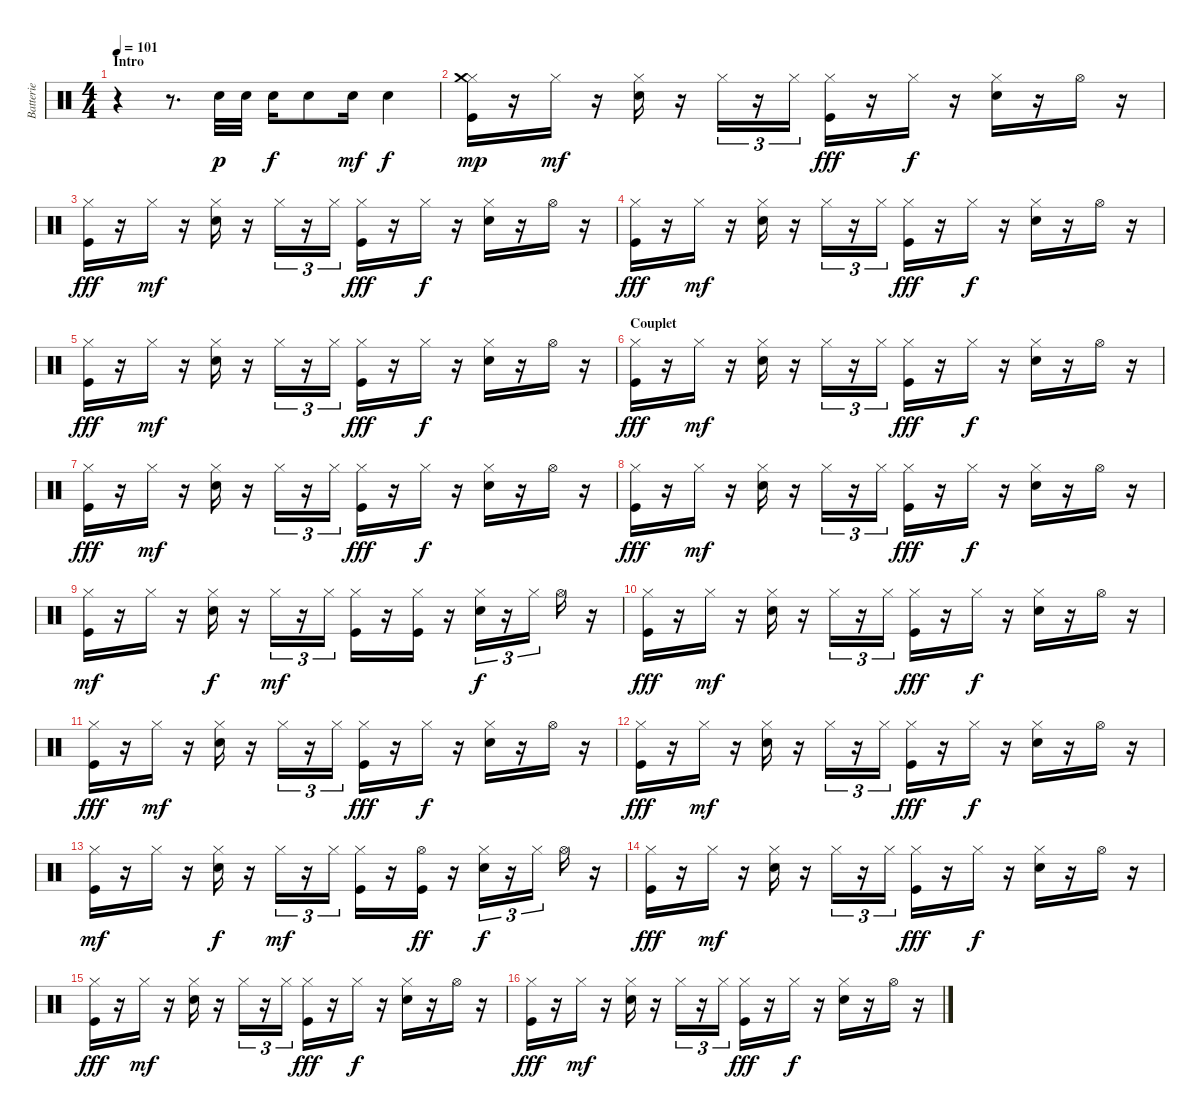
\track ("Batterie" "Batterie") {instrument percussion}
\staff {score}
\articulation defaults
\ts (4 4)
\section ("" "Intro")
\tempo 101
\clef neutral
\ks c
r.4{dy p} r.8{d} "Electric Snare (hit)".32 "Electric Snare (hit)".32 "Electric Snare (hit)".16{dy f} "Electric Snare (hit)".8 "Electric Snare (hit)".16{dy mf} "Electric Snare (hit)".4{dy f} |
("Kick (hit)" "Hi-Hat (closed)" "Crash medium (hit)").16{dy mp} r.16 "Hi-Hat (closed)".16{dy mf} r.16 ("Electric Snare (hit)" "Hi-Hat (closed)").16 r.16 "Hi-Hat (closed)".16{tu (3 2)} r.16{tu (3 2)} "Hi-Hat (closed)".16{tu (3 2)} ("Kick (hit)" "Hi-Hat (closed)").16{dy fff} r.16 "Hi-Hat (closed)".16{dy f} r.16 ("Electric Snare (hit)" "Hi-Hat (closed)").16 r.16 "Hi-Hat (open)".16 r.16 |
("Kick (hit)" "Hi-Hat (closed)").16{dy fff} r.16 "Hi-Hat (closed)".16{dy mf} r.16 ("Electric Snare (hit)" "Hi-Hat (closed)").16 r.16 "Hi-Hat (closed)".16{tu (3 2)} r.16{tu (3 2)} "Hi-Hat (closed)".16{tu (3 2)} ("Kick (hit)" "Hi-Hat (closed)").16{dy fff} r.16 "Hi-Hat (closed)".16{dy f} r.16 ("Electric Snare (hit)" "Hi-Hat (closed)").16 r.16 "Hi-Hat (open)".16 r.16 |
("Kick (hit)" "Hi-Hat (closed)").16{dy fff} r.16 "Hi-Hat (closed)".16{dy mf} r.16 ("Electric Snare (hit)" "Hi-Hat (closed)").16 r.16 "Hi-Hat (closed)".16{tu (3 2)} r.16{tu (3 2)} "Hi-Hat (closed)".16{tu (3 2)} ("Kick (hit)" "Hi-Hat (closed)").16{dy fff} r.16 "Hi-Hat (closed)".16{dy f} r.16 ("Electric Snare (hit)" "Hi-Hat (closed)").16 r.16 "Hi-Hat (open)".16 r.16 |
("Kick (hit)" "Hi-Hat (closed)").16{dy fff} r.16 "Hi-Hat (closed)".16{dy mf} r.16 ("Electric Snare (hit)" "Hi-Hat (closed)").16 r.16 "Hi-Hat (closed)".16{tu (3 2)} r.16{tu (3 2)} "Hi-Hat (closed)".16{tu (3 2)} ("Kick (hit)" "Hi-Hat (closed)").16{dy fff} r.16 "Hi-Hat (closed)".16{dy f} r.16 ("Electric Snare (hit)" "Hi-Hat (closed)").16 r.16 "Hi-Hat (open)".16 r.16 |
\section ("" "Couplet")
("Kick (hit)" "Hi-Hat (closed)").16{dy fff} r.16 "Hi-Hat (closed)".16{dy mf} r.16 ("Electric Snare (hit)" "Hi-Hat (closed)").16 r.16 "Hi-Hat (closed)".16{tu (3 2)} r.16{tu (3 2)} "Hi-Hat (closed)".16{tu (3 2)} ("Kick (hit)" "Hi-Hat (closed)").16{dy fff} r.16 "Hi-Hat (closed)".16{dy f} r.16 ("Electric Snare (hit)" "Hi-Hat (closed)").16 r.16 "Hi-Hat (open)".16 r.16 |
("Kick (hit)" "Hi-Hat (closed)").16{dy fff} r.16 "Hi-Hat (closed)".16{dy mf} r.16 ("Electric Snare (hit)" "Hi-Hat (closed)").16 r.16 "Hi-Hat (closed)".16{tu (3 2)} r.16{tu (3 2)} "Hi-Hat (closed)".16{tu (3 2)} ("Kick (hit)" "Hi-Hat (closed)").16{dy fff} r.16 "Hi-Hat (closed)".16{dy f} r.16 ("Electric Snare (hit)" "Hi-Hat (closed)").16 r.16 "Hi-Hat (open)".16 r.16 |
("Kick (hit)" "Hi-Hat (closed)").16{dy fff} r.16 "Hi-Hat (closed)".16{dy mf} r.16 ("Electric Snare (hit)" "Hi-Hat (closed)").16 r.16 "Hi-Hat (closed)".16{tu (3 2)} r.16{tu (3 2)} "Hi-Hat (closed)".16{tu (3 2)} ("Kick (hit)" "Hi-Hat (closed)").16{dy fff} r.16 "Hi-Hat (closed)".16{dy f} r.16 ("Electric Snare (hit)" "Hi-Hat (closed)").16 r.16 "Hi-Hat (open)".16 r.16 |
("Kick (hit)" "Hi-Hat (closed)").16{dy mf} r.16 "Hi-Hat (closed)".16 r.16 ("Electric Snare (hit)" "Hi-Hat (closed)").16{dy f} r.16 "Hi-Hat (closed)".16{tu (3 2) dy mf} r.16{tu (3 2)} "Hi-Hat (closed)".16{tu (3 2)} ("Kick (hit)" "Hi-Hat (closed)").16 r.16 ("Kick (hit)" "Hi-Hat (closed)").16 r.16 ("Electric Snare (hit)" "Hi-Hat (closed)").16{tu (3 2) dy f} r.16{tu (3 2)} "Hi-Hat (closed)".16{tu (3 2)} "Hi-Hat (open)".16 r.16 |
("Kick (hit)" "Hi-Hat (closed)").16{dy fff} r.16 "Hi-Hat (closed)".16{dy mf} r.16 ("Electric Snare (hit)" "Hi-Hat (closed)").16 r.16 "Hi-Hat (closed)".16{tu (3 2)} r.16{tu (3 2)} "Hi-Hat (closed)".16{tu (3 2)} ("Kick (hit)" "Hi-Hat (closed)").16{dy fff} r.16 "Hi-Hat (closed)".16{dy f} r.16 ("Electric Snare (hit)" "Hi-Hat (closed)").16 r.16 "Hi-Hat (open)".16 r.16 |
("Kick (hit)" "Hi-Hat (closed)").16{dy fff} r.16 "Hi-Hat (closed)".16{dy mf} r.16 ("Electric Snare (hit)" "Hi-Hat (closed)").16 r.16 "Hi-Hat (closed)".16{tu (3 2)} r.16{tu (3 2)} "Hi-Hat (closed)".16{tu (3 2)} ("Kick (hit)" "Hi-Hat (closed)").16{dy fff} r.16 "Hi-Hat (closed)".16{dy f} r.16 ("Electric Snare (hit)" "Hi-Hat (closed)").16 r.16 "Hi-Hat (open)".16 r.16 |
("Kick (hit)" "Hi-Hat (closed)").16{dy fff} r.16 "Hi-Hat (closed)".16{dy mf} r.16 ("Electric Snare (hit)" "Hi-Hat (closed)").16 r.16 "Hi-Hat (closed)".16{tu (3 2)} r.16{tu (3 2)} "Hi-Hat (closed)".16{tu (3 2)} ("Kick (hit)" "Hi-Hat (closed)").16{dy fff} r.16 "Hi-Hat (closed)".16{dy f} r.16 ("Electric Snare (hit)" "Hi-Hat (closed)").16 r.16 "Hi-Hat (open)".16 r.16 |
("Kick (hit)" "Hi-Hat (closed)").16{dy mf} r.16 "Hi-Hat (closed)".16 r.16 ("Electric Snare (hit)" "Hi-Hat (closed)").16{dy f} r.16 "Hi-Hat (closed)".16{tu (3 2) dy mf} r.16{tu (3 2)} "Hi-Hat (closed)".16{tu (3 2)} ("Kick (hit)" "Hi-Hat (closed)").16 r.16 ("Hi-Hat (open)" "Kick (hit)").16{dy ff} r.16 ("Electric Snare (hit)" "Hi-Hat (closed)").16{tu (3 2) dy f} r.16{tu (3 2)} "Hi-Hat (closed)".16{tu (3 2)} "Hi-Hat (open)".16 r.16 |
("Kick (hit)" "Hi-Hat (closed)").16{dy fff} r.16 "Hi-Hat (closed)".16{dy mf} r.16 ("Electric Snare (hit)" "Hi-Hat (closed)").16 r.16 "Hi-Hat (closed)".16{tu (3 2)} r.16{tu (3 2)} "Hi-Hat (closed)".16{tu (3 2)} ("Kick (hit)" "Hi-Hat (closed)").16{dy fff} r.16 "Hi-Hat (closed)".16{dy f} r.16 ("Electric Snare (hit)" "Hi-Hat (closed)").16 r.16 "Hi-Hat (open)".16 r.16 |
("Kick (hit)" "Hi-Hat (closed)").16{dy fff} r.16 "Hi-Hat (closed)".16{dy mf} r.16 ("Electric Snare (hit)" "Hi-Hat (closed)").16 r.16 "Hi-Hat (closed)".16{tu (3 2)} r.16{tu (3 2)} "Hi-Hat (closed)".16{tu (3 2)} ("Kick (hit)" "Hi-Hat (closed)").16{dy fff} r.16 "Hi-Hat (closed)".16{dy f} r.16 ("Electric Snare (hit)" "Hi-Hat (closed)").16 r.16 "Hi-Hat (open)".16 r.16 |
("Kick (hit)" "Hi-Hat (closed)").16{dy fff} r.16 "Hi-Hat (closed)".16{dy mf} r.16 ("Electric Snare (hit)" "Hi-Hat (closed)").16 r.16 "Hi-Hat (closed)".16{tu (3 2)} r.16{tu (3 2)} "Hi-Hat (closed)".16{tu (3 2)} ("Kick (hit)" "Hi-Hat (closed)").16{dy fff} r.16 "Hi-Hat (closed)".16{dy f} r.16 ("Electric Snare (hit)" "Hi-Hat (closed)").16 r.16 "Hi-Hat (open)".16 r.16
